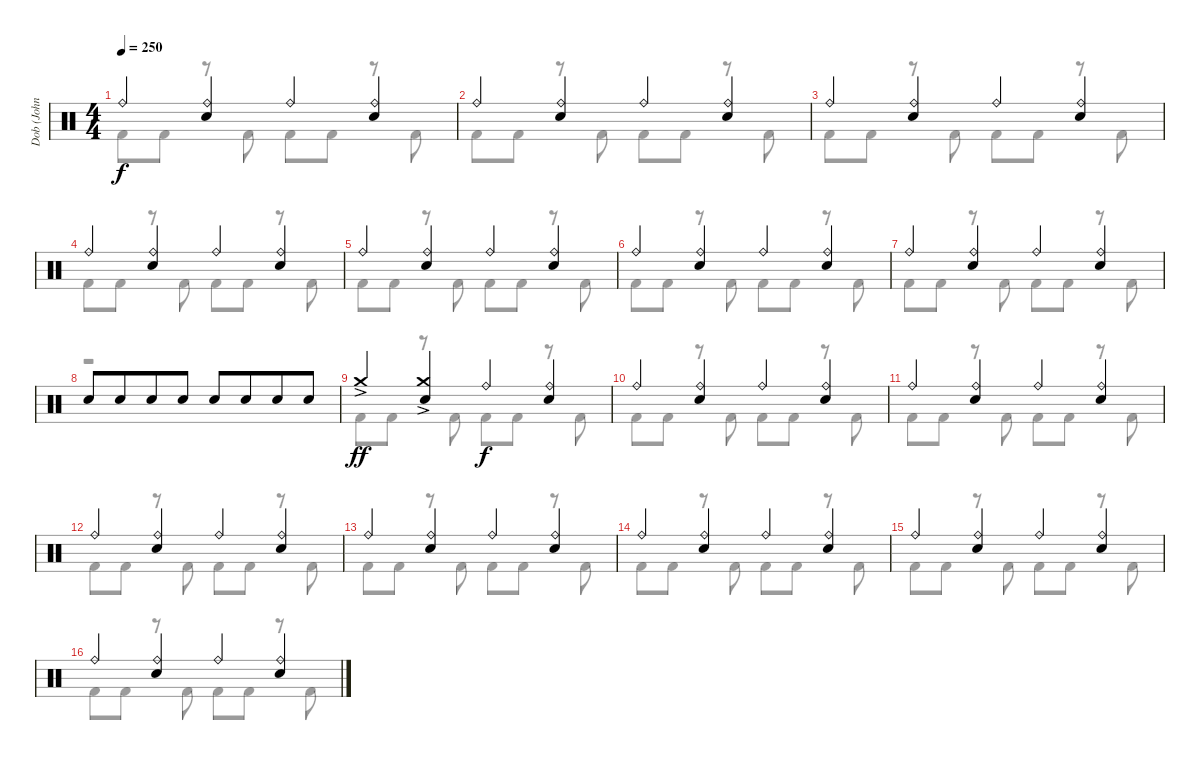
\track ("Dob (John Macaluso)" "Dob (John ") {instrument percussion}
\staff {score}
\articulation defaults
\voice
\ts (4 4)
\tempo 250
\clef neutral
\ks c "Ride (bell)".4{dy f}
("Ride (bell)" "Electric Snare (hit)").4 "Ride (bell)".4 ("Ride (bell)" "Electric Snare (hit)").4 |
"Ride (bell)".4 ("Ride (bell)" "Electric Snare (hit)").4 "Ride (bell)".4 ("Ride (bell)" "Electric Snare (hit)").4 |
"Ride (bell)".4 ("Ride (bell)" "Electric Snare (hit)").4 "Ride (bell)".4 ("Ride (bell)" "Electric Snare (hit)").4 |
"Ride (bell)".4 ("Ride (bell)" "Electric Snare (hit)").4 "Ride (bell)".4 ("Ride (bell)" "Electric Snare (hit)").4 |
"Ride (bell)".4 ("Ride (bell)" "Electric Snare (hit)").4 "Ride (bell)".4 ("Ride (bell)" "Electric Snare (hit)").4 |
"Ride (bell)".4 ("Ride (bell)" "Electric Snare (hit)").4 "Ride (bell)".4 ("Ride (bell)" "Electric Snare (hit)").4 |
"Ride (bell)".4 ("Ride (bell)" "Electric Snare (hit)").4 "Ride (bell)".4 ("Ride (bell)" "Electric Snare (hit)").4 |
"Electric Snare (hit)".8 "Electric Snare (hit)".8{beam merge} "Electric Snare (hit)".8 "Electric Snare (hit)".8 "Electric Snare (hit)".8 "Electric Snare (hit)".8{beam merge} "Electric Snare (hit)".8 "Electric Snare (hit)".8 |
"Crash medium (hit)"{ac}.4{dy ff} ("Crash medium (hit)"{ac} "Electric Snare (hit)").4 "Ride (bell)".4{dy f} ("Ride (bell)" "Electric Snare (hit)").4 |
"Ride (bell)".4 ("Ride (bell)" "Electric Snare (hit)").4 "Ride (bell)".4 ("Ride (bell)" "Electric Snare (hit)").4 |
"Ride (bell)".4 ("Ride (bell)" "Electric Snare (hit)").4 "Ride (bell)".4 ("Ride (bell)" "Electric Snare (hit)").4 |
"Ride (bell)".4 ("Ride (bell)" "Electric Snare (hit)").4 "Ride (bell)".4 ("Ride (bell)" "Electric Snare (hit)").4 |
"Ride (bell)".4 ("Ride (bell)" "Electric Snare (hit)").4 "Ride (bell)".4 ("Ride (bell)" "Electric Snare (hit)").4 |
"Ride (bell)".4 ("Ride (bell)" "Electric Snare (hit)").4 "Ride (bell)".4 ("Ride (bell)" "Electric Snare (hit)").4 |
"Ride (bell)".4 ("Ride (bell)" "Electric Snare (hit)").4 "Ride (bell)".4 ("Ride (bell)" "Electric Snare (hit)").4 |
"Ride (bell)".4 ("Ride (bell)" "Electric Snare (hit)").4 "Ride (bell)".4 ("Ride (bell)" "Electric Snare (hit)").4
\voice
\clef neutral
\ottava regular
\simile none
\ks c "Kick (hit) 2".8{dy f} "Kick (hit) 2".8
r.8 "Kick (hit) 2".8 "Kick (hit) 2".8 "Kick (hit) 2".8 r.8 "Kick (hit) 2".8 |
"Kick (hit) 2".8 "Kick (hit) 2".8 r.8 "Kick (hit) 2".8 "Kick (hit) 2".8 "Kick (hit) 2".8 r.8 "Kick (hit) 2".8 |
"Kick (hit) 2".8 "Kick (hit) 2".8 r.8 "Kick (hit) 2".8 "Kick (hit) 2".8 "Kick (hit) 2".8 r.8 "Kick (hit) 2".8 |
"Kick (hit) 2".8 "Kick (hit) 2".8 r.8 "Kick (hit) 2".8 "Kick (hit) 2".8 "Kick (hit) 2".8 r.8 "Kick (hit) 2".8 |
"Kick (hit) 2".8 "Kick (hit) 2".8 r.8 "Kick (hit) 2".8 "Kick (hit) 2".8 "Kick (hit) 2".8 r.8 "Kick (hit) 2".8 |
"Kick (hit) 2".8 "Kick (hit) 2".8 r.8 "Kick (hit) 2".8 "Kick (hit) 2".8 "Kick (hit) 2".8 r.8 "Kick (hit) 2".8 |
"Kick (hit) 2".8 "Kick (hit) 2".8 r.8 "Kick (hit) 2".8 "Kick (hit) 2".8 "Kick (hit) 2".8 r.8 "Kick (hit) 2".8 |
r.1 |
"Kick (hit) 2".8 "Kick (hit) 2".8 r.8 "Kick (hit) 2".8 "Kick (hit) 2".8 "Kick (hit) 2".8 r.8 "Kick (hit) 2".8 |
"Kick (hit) 2".8 "Kick (hit) 2".8 r.8 "Kick (hit) 2".8 "Kick (hit) 2".8 "Kick (hit) 2".8 r.8 "Kick (hit) 2".8 |
"Kick (hit) 2".8 "Kick (hit) 2".8 r.8 "Kick (hit) 2".8 "Kick (hit) 2".8 "Kick (hit) 2".8 r.8 "Kick (hit) 2".8 |
"Kick (hit) 2".8 "Kick (hit) 2".8 r.8 "Kick (hit) 2".8 "Kick (hit) 2".8 "Kick (hit) 2".8 r.8 "Kick (hit) 2".8 |
"Kick (hit) 2".8 "Kick (hit) 2".8 r.8 "Kick (hit) 2".8 "Kick (hit) 2".8 "Kick (hit) 2".8 r.8 "Kick (hit) 2".8 |
"Kick (hit) 2".8 "Kick (hit) 2".8 r.8 "Kick (hit) 2".8 "Kick (hit) 2".8 "Kick (hit) 2".8 r.8 "Kick (hit) 2".8 |
"Kick (hit) 2".8 "Kick (hit) 2".8 r.8 "Kick (hit) 2".8 "Kick (hit) 2".8 "Kick (hit) 2".8 r.8 "Kick (hit) 2".8 |
"Kick (hit) 2".8 "Kick (hit) 2".8 r.8 "Kick (hit) 2".8 "Kick (hit) 2".8 "Kick (hit) 2".8 r.8 "Kick (hit) 2".8
